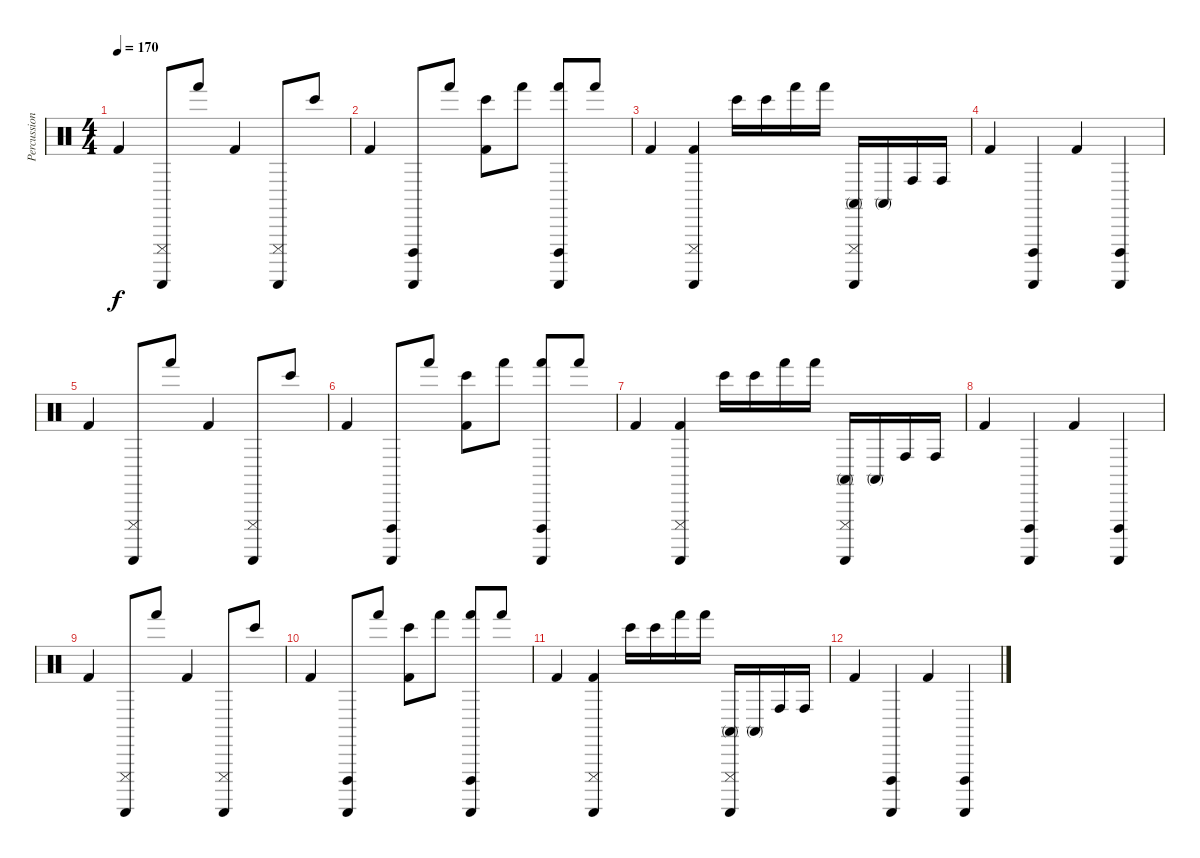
\track ("Percussion" "Percussion") {instrument percussion}
\staff {score}
\articulation defaults
\ts (4 4)
\tempo 170
\clef neutral
\ks c "Kick (hit) 2".4{dy f}
("Guiro (scrap-return)" "Cuica (mute)").8 "Hand (hit)".8 "Kick (hit) 2".4 ("Guiro (scrap-return)" "Cuica (mute)").8 "Bongo High (hit)".8 |
"Kick (hit) 2".4 ("Guiro (scrap-return)" "Cuica (open)").8 "Hand (hit)".8 ("Kick (hit) 2" "Bongo High (hit)").8 "Hand (hit)".8 ("Hand (hit)" "Guiro (scrap-return)" "Cuica (open)").8 "Hand (hit)".8 |
"Kick (hit) 2".4 ("Kick (hit) 2" "Guiro (scrap-return)" "Cuica (mute)").4 "Bongo High (hit)".16 "Bongo High (hit)".16 "Hand (hit)".16 "Hand (hit)".16 ("Conga high (mute)" "Guiro (scrap-return)" "Cuica (mute)").16 "Conga high (mute)".16 "Conga high (hit)".16 "Conga high (hit)".16 |
"Kick (hit) 2".4 ("Guiro (scrap-return)" "Cuica (open)").4 "Kick (hit) 2".4 ("Guiro (scrap-return)" "Cuica (open)").4 |
"Kick (hit) 2".4 ("Guiro (scrap-return)" "Cuica (mute)").8 "Hand (hit)".8 "Kick (hit) 2".4 ("Guiro (scrap-return)" "Cuica (mute)").8 "Bongo High (hit)".8 |
"Kick (hit) 2".4 ("Guiro (scrap-return)" "Cuica (open)").8 "Hand (hit)".8 ("Kick (hit) 2" "Bongo High (hit)").8 "Hand (hit)".8 ("Hand (hit)" "Guiro (scrap-return)" "Cuica (open)").8 "Hand (hit)".8 |
"Kick (hit) 2".4 ("Kick (hit) 2" "Guiro (scrap-return)" "Cuica (mute)").4 "Bongo High (hit)".16 "Bongo High (hit)".16 "Hand (hit)".16 "Hand (hit)".16 ("Conga high (mute)" "Guiro (scrap-return)" "Cuica (mute)").16 "Conga high (mute)".16 "Conga high (hit)".16 "Conga high (hit)".16 |
"Kick (hit) 2".4 ("Guiro (scrap-return)" "Cuica (open)").4 "Kick (hit) 2".4 ("Guiro (scrap-return)" "Cuica (open)").4 |
"Kick (hit) 2".4 ("Guiro (scrap-return)" "Cuica (mute)").8 "Hand (hit)".8 "Kick (hit) 2".4 ("Guiro (scrap-return)" "Cuica (mute)").8 "Bongo High (hit)".8 |
"Kick (hit) 2".4 ("Guiro (scrap-return)" "Cuica (open)").8 "Hand (hit)".8 ("Kick (hit) 2" "Bongo High (hit)").8 "Hand (hit)".8 ("Hand (hit)" "Guiro (scrap-return)" "Cuica (open)").8 "Hand (hit)".8 |
"Kick (hit) 2".4 ("Kick (hit) 2" "Guiro (scrap-return)" "Cuica (mute)").4 "Bongo High (hit)".16 "Bongo High (hit)".16 "Hand (hit)".16 "Hand (hit)".16 ("Conga high (mute)" "Guiro (scrap-return)" "Cuica (mute)").16 "Conga high (mute)".16 "Conga high (hit)".16 "Conga high (hit)".16 |
"Kick (hit) 2".4 ("Guiro (scrap-return)" "Cuica (open)").4 "Kick (hit) 2".4 ("Guiro (scrap-return)" "Cuica (open)").4
